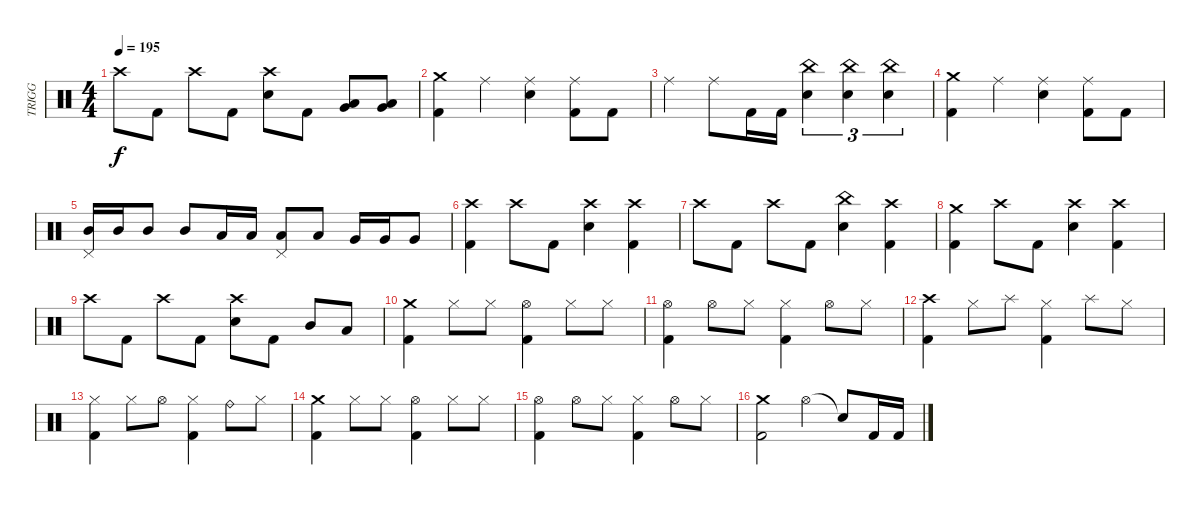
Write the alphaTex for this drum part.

\track ("TRIGG" "TRIGG") {instrument percussion}
\staff {score}
\articulation defaults
\ts (4 4)
\tempo 195
\clef neutral
\ks c "Crash high (hit)".8{dy f} "Kick (hit) 2".8 "Crash high (hit)".8 "Kick (hit) 2".8
("Crash high (hit)" "Electric Snare (hit)").8 "Kick (hit) 2".8 ("Low Tom (hit)" "Very Low Tom (hit)").8 ("Low Tom (hit)" "Very Low Tom (hit)").8 |
("Crash medium (hit)" "Kick (hit) 2").4 "Ride (middle)".4 ("Ride (middle)" "Electric Snare (hit)").4 ("Ride (middle)" "Kick (hit) 2").8 "Kick (hit) 2".8 |
"Ride (middle)".4 "Ride (middle)".8 "Kick (hit) 2".16 "Kick (hit) 2".16 ("China (hit)" "Electric Snare (hit)").4{tu (3 2)} ("China (hit)" "Electric Snare (hit)").4{tu (3 2)} ("China (hit)" "Electric Snare (hit)").4{tu (3 2)} |
("Crash medium (hit)" "Kick (hit) 2").4 "Ride (middle)".4 ("Ride (middle)" "Electric Snare (hit)").4 ("Ride (middle)" "Kick (hit) 2").8 "Kick (hit) 2".8 |
("Pedal Hi-Hat (hit)" "Mid Tom (hit)").16 "Mid Tom (hit)".16 "Mid Tom (hit)".8 "Mid Tom (hit)".8 "Low Tom (hit)".16 "Low Tom (hit)".16 ("Pedal Hi-Hat (hit)" "Low Tom (hit)").8 "Low Tom (hit)".8 "Very Low Tom (hit)".16 "Very Low Tom (hit)".16 "Very Low Tom (hit)".8 |
("Crash high (hit)" "Kick (hit) 2").4 "Crash high (hit)".8 "Kick (hit) 2".8 ("Crash high (hit)" "Electric Snare (hit)").4 ("Crash high (hit)" "Kick (hit) 2").4 |
"Crash high (hit)".8 "Kick (hit) 2".8 "Crash high (hit)".8 "Kick (hit) 2".8 ("China (hit)" "Electric Snare (hit)").4 ("Crash high (hit)" "Kick (hit) 2").4 |
("Crash medium (hit)" "Kick (hit) 2").4 "Crash high (hit)".8 "Kick (hit) 2".8 ("Crash high (hit)" "Electric Snare (hit)").4 ("Crash high (hit)" "Kick (hit) 2").4 |
"Crash high (hit)".8 "Kick (hit) 2".8 "Crash high (hit)".8 "Kick (hit) 2".8 ("Crash high (hit)" "Electric Snare (hit)").8 "Kick (hit) 2".8 "Mid Tom (hit)".8 "Low Tom (hit)".8 |
("Crash medium (hit)" "Kick (hit) 2").4 "Hi-Hat (closed)".8 "Hi-Hat (closed)".8 ("Hi-Hat (open)" "Kick (hit) 2").4 "Hi-Hat (closed)".8 "Hi-Hat (closed)".8 |
("Hi-Hat (open)" "Kick (hit) 2").4 "Hi-Hat (open)".8 "Hi-Hat (closed)".8 ("Hi-Hat (closed)" "Kick (hit) 2").4 "Hi-Hat (open)".8 "Hi-Hat (closed)".8 |
("Crash high (hit)" "Kick (hit) 2").4 "Hi-Hat (closed)".8 "Splash (hit)".8 ("Hi-Hat (closed)" "Kick (hit) 2").4 "Splash (hit)".8 "Hi-Hat (closed)".8 |
("Hi-Hat (closed)" "Kick (hit) 2").4 "Hi-Hat (closed)".8 "Hi-Hat (open)".8 ("Hi-Hat (closed)" "Kick (hit) 2").4 "Ride (bell)".8 "Hi-Hat (closed)".8 |
("Crash medium (hit)" "Kick (hit) 2").4 "Hi-Hat (closed)".8 "Hi-Hat (closed)".8 ("Hi-Hat (open)" "Kick (hit) 2").4 "Hi-Hat (closed)".8 "Hi-Hat (closed)".8 |
("Hi-Hat (open)" "Kick (hit) 2").4 "Hi-Hat (open)".8 "Hi-Hat (closed)".8 ("Hi-Hat (closed)" "Kick (hit) 2").4 "Hi-Hat (open)".8 "Hi-Hat (closed)".8 |
("Crash medium (hit)" "Kick (hit) 2").2 "Hi-Hat (open)".4 "Snare (hit)"{t}.8 "Kick (hit) 2".16 "Kick (hit) 2".16
